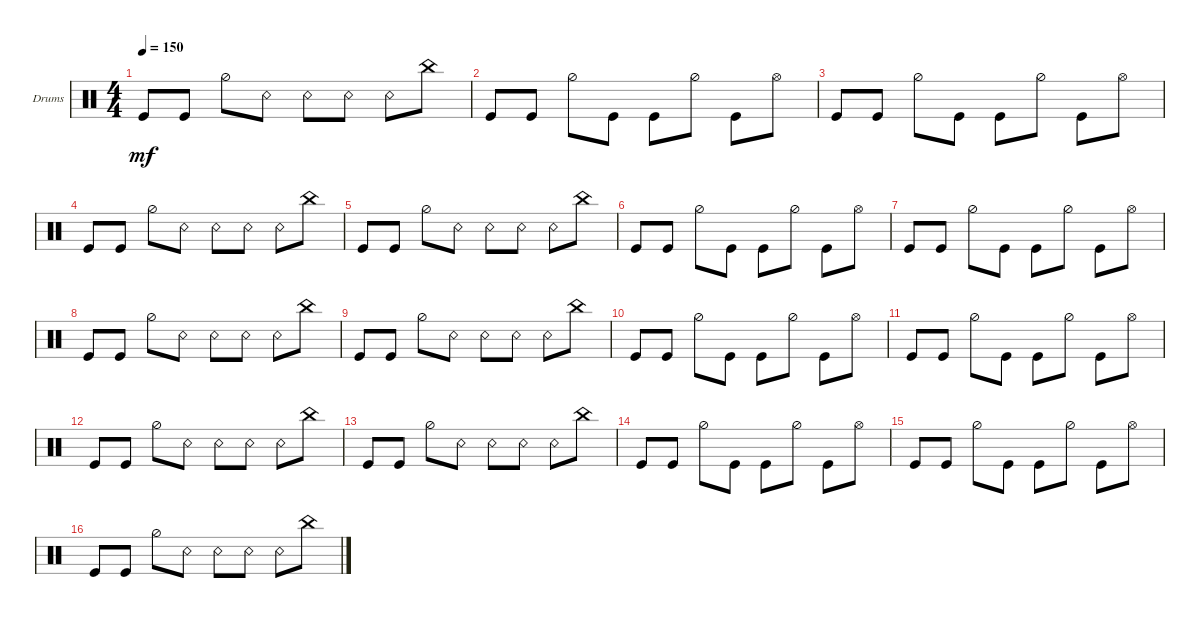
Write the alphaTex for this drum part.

\bracketExtendMode groupsimilarinstruments
\firstSystemTrackNameOrientation horizontal
\otherSystemsTrackNameOrientation horizontal
\track ("Drumkit" "Drums") {instrument percussion}
\staff {score}
\articulation defaults
\ts (4 4)
\tempo 150
\clef neutral
\ks c "Kick (hit)".8{dy mf} "Kick (hit)".8 "Hi-Hat (half)".8 "Snare (rim shot)".8 "Snare (rim shot)".8 "Snare (rim shot)".8 "Snare (rim shot)".8 "China (hit)".8
|
"Kick (hit)".8 "Kick (hit)".8 "Hi-Hat (half)".8 "Kick (hit)".8 "Kick (hit)".8 "Hi-Hat (half)".8 "Kick (hit)".8 "Hi-Hat (open)".8 |
"Kick (hit)".8 "Kick (hit)".8 "Hi-Hat (half)".8 "Kick (hit)".8 "Kick (hit)".8 "Hi-Hat (half)".8 "Kick (hit)".8 "Hi-Hat (open)".8 |
"Kick (hit)".8 "Kick (hit)".8 "Hi-Hat (half)".8 "Snare (rim shot)".8 "Snare (rim shot)".8 "Snare (rim shot)".8 "Snare (rim shot)".8 "China (hit)".8 |
"Kick (hit)".8 "Kick (hit)".8 "Hi-Hat (half)".8 "Snare (rim shot)".8 "Snare (rim shot)".8 "Snare (rim shot)".8 "Snare (rim shot)".8 "China (hit)".8 |
"Kick (hit)".8 "Kick (hit)".8 "Hi-Hat (half)".8 "Kick (hit)".8 "Kick (hit)".8 "Hi-Hat (half)".8 "Kick (hit)".8 "Hi-Hat (open)".8 |
"Kick (hit)".8 "Kick (hit)".8 "Hi-Hat (half)".8 "Kick (hit)".8 "Kick (hit)".8 "Hi-Hat (half)".8 "Kick (hit)".8 "Hi-Hat (open)".8 |
"Kick (hit)".8 "Kick (hit)".8 "Hi-Hat (half)".8 "Snare (rim shot)".8 "Snare (rim shot)".8 "Snare (rim shot)".8 "Snare (rim shot)".8 "China (hit)".8 |
"Kick (hit)".8 "Kick (hit)".8 "Hi-Hat (half)".8 "Snare (rim shot)".8 "Snare (rim shot)".8 "Snare (rim shot)".8 "Snare (rim shot)".8 "China (hit)".8 |
"Kick (hit)".8 "Kick (hit)".8 "Hi-Hat (half)".8 "Kick (hit)".8 "Kick (hit)".8 "Hi-Hat (half)".8 "Kick (hit)".8 "Hi-Hat (open)".8 |
"Kick (hit)".8 "Kick (hit)".8 "Hi-Hat (half)".8 "Kick (hit)".8 "Kick (hit)".8 "Hi-Hat (half)".8 "Kick (hit)".8 "Hi-Hat (open)".8 |
"Kick (hit)".8 "Kick (hit)".8 "Hi-Hat (half)".8 "Snare (rim shot)".8 "Snare (rim shot)".8 "Snare (rim shot)".8 "Snare (rim shot)".8 "China (hit)".8 |
"Kick (hit)".8 "Kick (hit)".8 "Hi-Hat (half)".8 "Snare (rim shot)".8 "Snare (rim shot)".8 "Snare (rim shot)".8 "Snare (rim shot)".8 "China (hit)".8 |
"Kick (hit)".8 "Kick (hit)".8 "Hi-Hat (half)".8 "Kick (hit)".8 "Kick (hit)".8 "Hi-Hat (half)".8 "Kick (hit)".8 "Hi-Hat (open)".8 |
"Kick (hit)".8 "Kick (hit)".8 "Hi-Hat (half)".8 "Kick (hit)".8 "Kick (hit)".8 "Hi-Hat (half)".8 "Kick (hit)".8 "Hi-Hat (open)".8 |
"Kick (hit)".8 "Kick (hit)".8 "Hi-Hat (half)".8 "Snare (rim shot)".8 "Snare (rim shot)".8 "Snare (rim shot)".8 "Snare (rim shot)".8 "China (hit)".8
